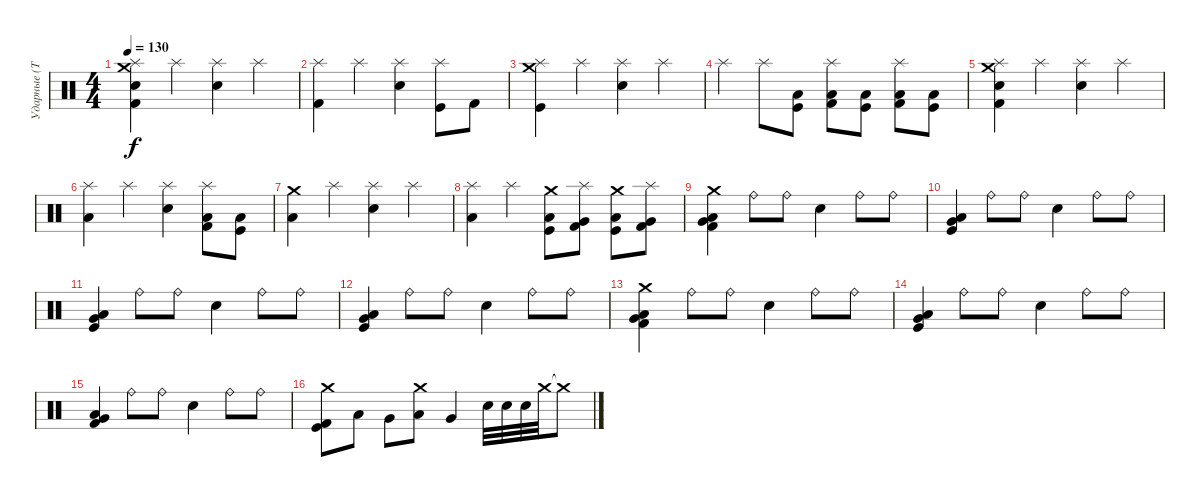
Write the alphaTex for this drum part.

\track ("Ударные (Тьодальв)" "Ударные (Т") {instrument percussion}
\staff {score}
\articulation defaults
\ts (4 4)
\tempo 130
\clef neutral
\ks c
("Crash medium (hit)" "Splash (hit)" "Kick (hit) 2" "Snare (hit) 2").4{dy f} "Splash (hit)".4 ("Splash (hit)" "Snare (hit) 2").4 "Splash (hit)".4 |
("Splash (hit)" "Kick (hit) 2").4 "Splash (hit)".4 ("Splash (hit)" "Snare (hit) 2").4 ("Splash (hit)" "Kick (hit)").8 "Kick (hit) 2".8 |
("Crash medium (hit)" "Splash (hit)" "Kick (hit)").4 "Splash (hit)".4 ("Splash (hit)" "Snare (hit) 2").4 "Splash (hit)".4 |
"Splash (hit)".4 "Splash (hit)".8 ("Low Floor Tom (hit)" "Kick (hit)").8 ("Splash (hit)" "Low Floor Tom (hit)" "Kick (hit) 2").8 ("Low Floor Tom (hit)" "Kick (hit)").8 ("Splash (hit)" "Low Floor Tom (hit)" "Kick (hit) 2").8 ("Low Floor Tom (hit)" "Kick (hit)").8 |
("Crash medium (hit)" "Splash (hit)" "Kick (hit) 2" "Snare (hit) 2").4 "Splash (hit)".4 ("Splash (hit)" "Snare (hit) 2").4 "Splash (hit)".4 |
("Splash (hit)" "Low Floor Tom (hit)").4 "Splash (hit)".4 ("Splash (hit)" "Snare (hit) 2").4 ("Splash (hit)" "Low Floor Tom (hit)" "Kick (hit) 2").8 ("Low Floor Tom (hit)" "Kick (hit)").8 |
("Crash medium (hit)" "Low Floor Tom (hit)").4 "Splash (hit)".4 ("Splash (hit)" "Snare (hit) 2").4 "Splash (hit)".4 |
("Splash (hit)" "Low Floor Tom (hit)").4 "Splash (hit)".4 ("Crash medium (hit)" "Kick (hit)" "Low Floor Tom (hit)").8 ("Splash (hit)" "Kick (hit) 2" "Very Low Tom (hit)").8 ("Crash medium (hit)" "Kick (hit)" "Low Floor Tom (hit)").8 ("Splash (hit)" "Kick (hit) 2" "Very Low Tom (hit)").8 |
("Crash medium (hit)" "Low Floor Tom (hit)" "Very Low Tom (hit)" "Kick (hit) 2").4 "Ride (bell)".8 "Ride (bell)".8 "Snare (hit) 2".4 "Ride (bell)".8 "Ride (bell)".8 |
("Low Floor Tom (hit)" "Very Low Tom (hit)" "Kick (hit)").4 "Ride (bell)".8 "Ride (bell)".8 "Snare (hit) 2".4 "Ride (bell)".8 "Ride (bell)".8 |
("Low Floor Tom (hit)" "Very Low Tom (hit)" "Kick (hit)").4 "Ride (bell)".8 "Ride (bell)".8 "Snare (hit) 2".4 "Ride (bell)".8 "Ride (bell)".8 |
("Low Floor Tom (hit)" "Very Low Tom (hit)" "Kick (hit)").4 "Ride (bell)".8 "Ride (bell)".8 "Snare (hit) 2".4 "Ride (bell)".8 "Ride (bell)".8 |
("Crash medium (hit)" "Low Floor Tom (hit)" "Very Low Tom (hit)" "Kick (hit) 2").4 "Ride (bell)".8 "Ride (bell)".8 "Snare (hit) 2".4 "Ride (bell)".8 "Ride (bell)".8 |
("Low Floor Tom (hit)" "Very Low Tom (hit)" "Kick (hit)").4 "Ride (bell)".8 "Ride (bell)".8 "Snare (hit) 2".4 "Ride (bell)".8 "Ride (bell)".8 |
("Low Floor Tom (hit)" "Very Low Tom (hit)" "Kick (hit) 2").4 "Ride (bell)".8 "Ride (bell)".8 "Snare (hit) 2".4 "Ride (bell)".8 "Ride (bell)".8 |
("Crash medium (hit)" "Kick (hit)" "Kick (hit) 2").8 "Low Floor Tom (hit)".8 "Very Low Tom (hit)".8 ("Crash medium (hit)" "Low Floor Tom (hit)").8 "Very Low Tom (hit)".4 "Snare (hit) 2".32 "Snare (hit) 2".32 "Snare (hit) 2".32 "Crash medium (hit)".32 "Crash medium (hit)"{t}.8
